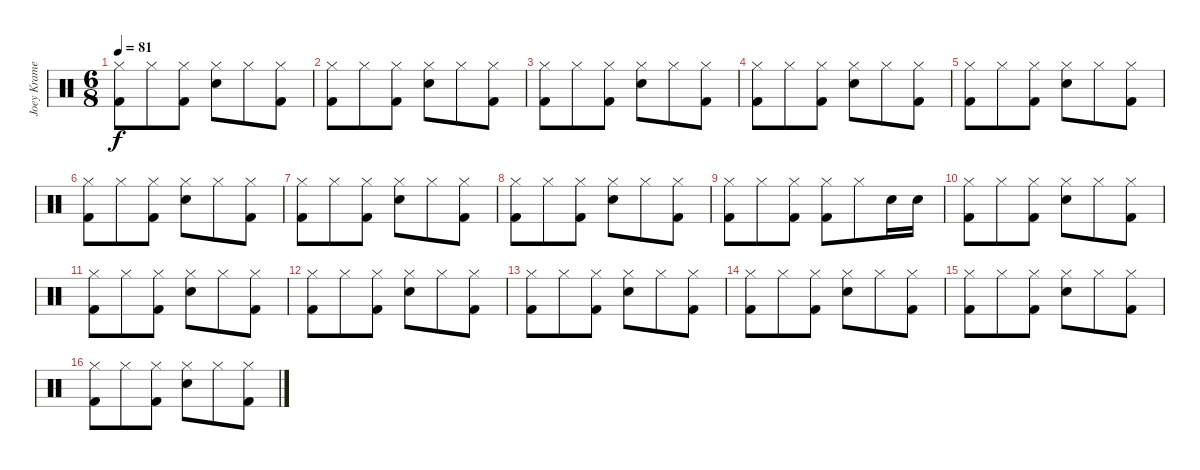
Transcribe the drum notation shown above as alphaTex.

\track ("Joey Kramer" "Joey Krame") {instrument percussion}
\staff {score}
\articulation defaults
\ts (6 8)
\tempo 81
\clef neutral
\ks c
("Hi-Hat (closed)" "Kick (hit) 2").8{dy f} "Hi-Hat (closed)".8 ("Hi-Hat (closed)" "Kick (hit) 2").8 ("Hi-Hat (closed)" "Snare (hit) 2").8 "Hi-Hat (closed)".8 ("Hi-Hat (closed)" "Kick (hit) 2").8 |
("Hi-Hat (closed)" "Kick (hit) 2").8 "Hi-Hat (closed)".8 ("Hi-Hat (closed)" "Kick (hit) 2").8 ("Hi-Hat (closed)" "Snare (hit) 2").8 "Hi-Hat (closed)".8 ("Hi-Hat (closed)" "Kick (hit) 2").8 |
("Hi-Hat (closed)" "Kick (hit) 2").8 "Hi-Hat (closed)".8 ("Hi-Hat (closed)" "Kick (hit) 2").8 ("Hi-Hat (closed)" "Snare (hit) 2").8 "Hi-Hat (closed)".8 ("Hi-Hat (closed)" "Kick (hit) 2").8 |
("Hi-Hat (closed)" "Kick (hit) 2").8 "Hi-Hat (closed)".8 ("Hi-Hat (closed)" "Kick (hit) 2").8 ("Hi-Hat (closed)" "Snare (hit) 2").8 "Hi-Hat (closed)".8 ("Hi-Hat (closed)" "Kick (hit) 2").8 |
("Hi-Hat (closed)" "Kick (hit) 2").8 "Hi-Hat (closed)".8 ("Hi-Hat (closed)" "Kick (hit) 2").8 ("Hi-Hat (closed)" "Snare (hit) 2").8 "Hi-Hat (closed)".8 ("Hi-Hat (closed)" "Kick (hit) 2").8 |
("Hi-Hat (closed)" "Kick (hit) 2").8 "Hi-Hat (closed)".8 ("Hi-Hat (closed)" "Kick (hit) 2").8 ("Hi-Hat (closed)" "Snare (hit) 2").8 "Hi-Hat (closed)".8 ("Hi-Hat (closed)" "Kick (hit) 2").8 |
("Hi-Hat (closed)" "Kick (hit) 2").8 "Hi-Hat (closed)".8 ("Hi-Hat (closed)" "Kick (hit) 2").8 ("Hi-Hat (closed)" "Snare (hit) 2").8 "Hi-Hat (closed)".8 ("Hi-Hat (closed)" "Kick (hit) 2").8 |
("Hi-Hat (closed)" "Kick (hit) 2").8 "Hi-Hat (closed)".8 ("Hi-Hat (closed)" "Kick (hit) 2").8 ("Hi-Hat (closed)" "Snare (hit) 2").8 "Hi-Hat (closed)".8 ("Hi-Hat (closed)" "Kick (hit) 2").8 |
("Hi-Hat (closed)" "Kick (hit) 2").8 "Hi-Hat (closed)".8 ("Hi-Hat (closed)" "Kick (hit) 2").8 ("Hi-Hat (closed)" "Kick (hit) 2").8 "Hi-Hat (closed)".8 "Snare (hit) 2".16 "Snare (hit) 2".16 |
("Hi-Hat (closed)" "Kick (hit) 2").8 "Hi-Hat (closed)".8 ("Hi-Hat (closed)" "Kick (hit) 2").8 ("Hi-Hat (closed)" "Snare (hit) 2").8 "Hi-Hat (closed)".8 ("Hi-Hat (closed)" "Kick (hit) 2").8 |
("Hi-Hat (closed)" "Kick (hit) 2").8 "Hi-Hat (closed)".8 ("Hi-Hat (closed)" "Kick (hit) 2").8 ("Hi-Hat (closed)" "Snare (hit) 2").8 "Hi-Hat (closed)".8 ("Hi-Hat (closed)" "Kick (hit) 2").8 |
("Hi-Hat (closed)" "Kick (hit) 2").8 "Hi-Hat (closed)".8 ("Hi-Hat (closed)" "Kick (hit) 2").8 ("Hi-Hat (closed)" "Snare (hit) 2").8 "Hi-Hat (closed)".8 ("Hi-Hat (closed)" "Kick (hit) 2").8 |
("Hi-Hat (closed)" "Kick (hit) 2").8 "Hi-Hat (closed)".8 ("Hi-Hat (closed)" "Kick (hit) 2").8 ("Hi-Hat (closed)" "Snare (hit) 2").8 "Hi-Hat (closed)".8 ("Hi-Hat (closed)" "Kick (hit) 2").8 |
("Hi-Hat (closed)" "Kick (hit) 2").8 "Hi-Hat (closed)".8 ("Hi-Hat (closed)" "Kick (hit) 2").8 ("Hi-Hat (closed)" "Snare (hit) 2").8 "Hi-Hat (closed)".8 ("Hi-Hat (closed)" "Kick (hit) 2").8 |
("Hi-Hat (closed)" "Kick (hit) 2").8 "Hi-Hat (closed)".8 ("Hi-Hat (closed)" "Kick (hit) 2").8 ("Hi-Hat (closed)" "Snare (hit) 2").8 "Hi-Hat (closed)".8 ("Hi-Hat (closed)" "Kick (hit) 2").8 |
("Hi-Hat (closed)" "Kick (hit) 2").8 "Hi-Hat (closed)".8 ("Hi-Hat (closed)" "Kick (hit) 2").8 ("Hi-Hat (closed)" "Snare (hit) 2").8 "Hi-Hat (closed)".8 ("Hi-Hat (closed)" "Kick (hit) 2").8
